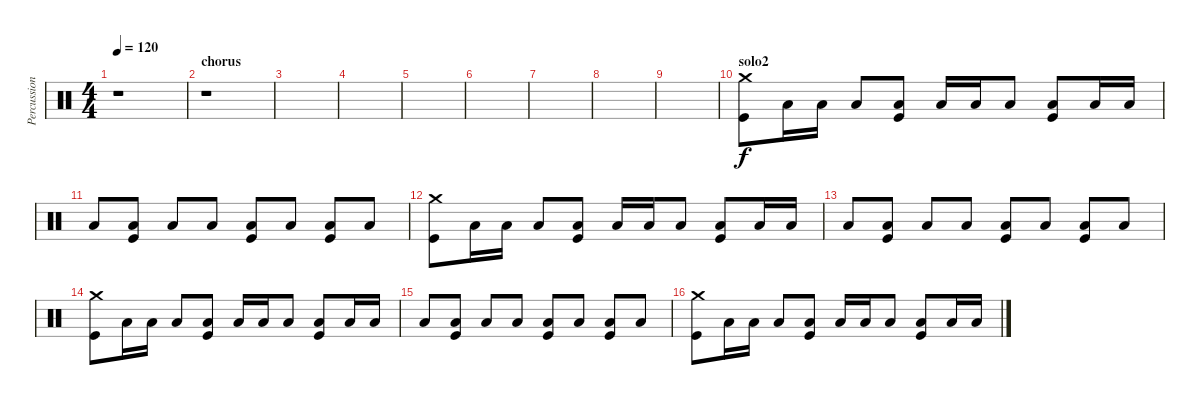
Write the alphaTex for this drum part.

\track ("Percussion" "Percussion") {instrument percussion}
\staff {score}
\articulation defaults
\ts (4 4)
\tempo 120
\clef neutral
\ks c
r.1{dy f} |
\section ("" "chorus")
r.1 |
|
|
|
|
|
|
|
\section ("" "solo2")
("Crash medium (hit)" "Kick (hit)").8 "Low Floor Tom (hit)".16 "Low Floor Tom (hit)".16 "Low Floor Tom (hit)".8 ("Low Floor Tom (hit)" "Kick (hit)").8 "Low Floor Tom (hit)".16 "Low Floor Tom (hit)".16 "Low Floor Tom (hit)".8 ("Low Floor Tom (hit)" "Kick (hit)").8 "Low Floor Tom (hit)".16 "Low Floor Tom (hit)".16 |
"Low Floor Tom (hit)".8 ("Low Floor Tom (hit)" "Kick (hit)").8 "Low Floor Tom (hit)".8 "Low Floor Tom (hit)".8 ("Low Floor Tom (hit)" "Kick (hit)").8 "Low Floor Tom (hit)".8 ("Low Floor Tom (hit)" "Kick (hit)").8 "Low Floor Tom (hit)".8 |
("Crash medium (hit)" "Kick (hit)").8 "Low Floor Tom (hit)".16 "Low Floor Tom (hit)".16 "Low Floor Tom (hit)".8 ("Low Floor Tom (hit)" "Kick (hit)").8 "Low Floor Tom (hit)".16 "Low Floor Tom (hit)".16 "Low Floor Tom (hit)".8 ("Low Floor Tom (hit)" "Kick (hit)").8 "Low Floor Tom (hit)".16 "Low Floor Tom (hit)".16 |
"Low Floor Tom (hit)".8 ("Low Floor Tom (hit)" "Kick (hit)").8 "Low Floor Tom (hit)".8 "Low Floor Tom (hit)".8 ("Low Floor Tom (hit)" "Kick (hit)").8 "Low Floor Tom (hit)".8 ("Low Floor Tom (hit)" "Kick (hit)").8 "Low Floor Tom (hit)".8 |
("Crash medium (hit)" "Kick (hit)").8 "Low Floor Tom (hit)".16 "Low Floor Tom (hit)".16 "Low Floor Tom (hit)".8 ("Low Floor Tom (hit)" "Kick (hit)").8 "Low Floor Tom (hit)".16 "Low Floor Tom (hit)".16 "Low Floor Tom (hit)".8 ("Low Floor Tom (hit)" "Kick (hit)").8 "Low Floor Tom (hit)".16 "Low Floor Tom (hit)".16 |
"Low Floor Tom (hit)".8 ("Low Floor Tom (hit)" "Kick (hit)").8 "Low Floor Tom (hit)".8 "Low Floor Tom (hit)".8 ("Low Floor Tom (hit)" "Kick (hit)").8 "Low Floor Tom (hit)".8 ("Low Floor Tom (hit)" "Kick (hit)").8 "Low Floor Tom (hit)".8 |
("Crash medium (hit)" "Kick (hit)").8 "Low Floor Tom (hit)".16 "Low Floor Tom (hit)".16 "Low Floor Tom (hit)".8 ("Low Floor Tom (hit)" "Kick (hit)").8 "Low Floor Tom (hit)".16 "Low Floor Tom (hit)".16 "Low Floor Tom (hit)".8 ("Low Floor Tom (hit)" "Kick (hit)").8 "Low Floor Tom (hit)".16 "Low Floor Tom (hit)".16
